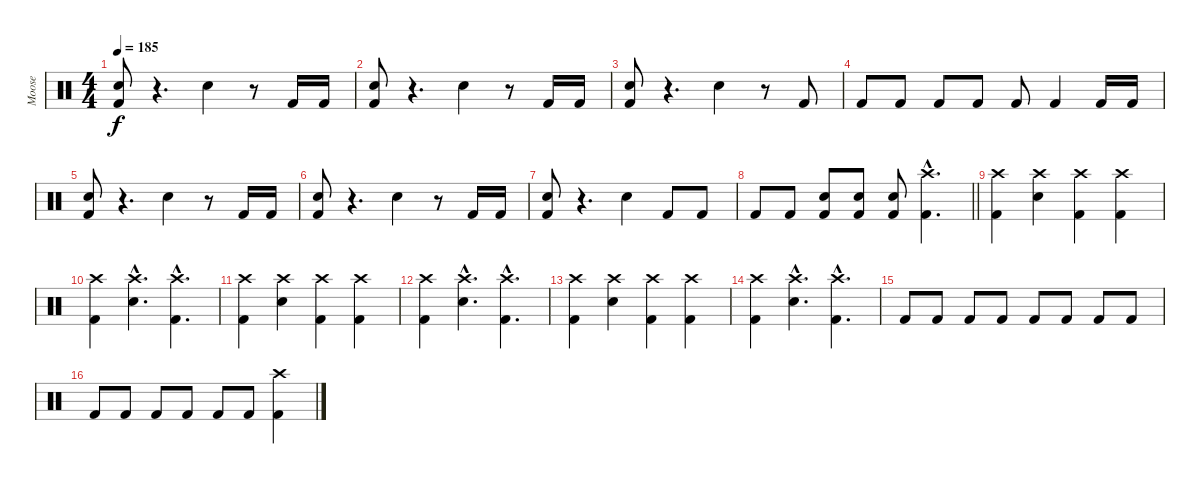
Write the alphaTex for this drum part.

\track ("Moose" "Moose") {instrument percussion}
\staff {score}
\articulation defaults
\ts (4 4)
\tempo 185
\clef neutral
\ks c
("Snare (hit) 2" "Kick (hit) 2").8{dy f} r.4{d} "Snare (hit) 2".4 r.8 "Kick (hit) 2".16 "Kick (hit) 2".16 |
("Snare (hit) 2" "Kick (hit) 2").8 r.4{d} "Snare (hit) 2".4 r.8 "Kick (hit) 2".16 "Kick (hit) 2".16 |
("Snare (hit) 2" "Kick (hit) 2").8 r.4{d} "Snare (hit) 2".4 r.8 "Kick (hit) 2".8 |
"Kick (hit) 2".8 "Kick (hit) 2".8 "Kick (hit) 2".8 "Kick (hit) 2".8 "Kick (hit) 2".8 "Kick (hit) 2".4 "Kick (hit) 2".16 "Kick (hit) 2".16 |
("Snare (hit) 2" "Kick (hit) 2").8 r.4{d} "Snare (hit) 2".4 r.8 "Kick (hit) 2".16 "Kick (hit) 2".16 |
("Snare (hit) 2" "Kick (hit) 2").8 r.4{d} "Snare (hit) 2".4 r.8 "Kick (hit) 2".16 "Kick (hit) 2".16 |
("Snare (hit) 2" "Kick (hit) 2").8 r.4{d} "Snare (hit) 2".4 "Kick (hit) 2".8 "Kick (hit) 2".8 |
\barLineRight lightlight "Kick (hit) 2".8 "Kick (hit) 2".8
("Snare (hit) 2" "Kick (hit) 2").8 ("Snare (hit) 2" "Kick (hit) 2").8 ("Snare (hit) 2" "Kick (hit) 2").8 ("Crash high (hit)"{hac} "Kick (hit) 2"{hac}).4{d} |
("Crash high (hit)" "Kick (hit) 2").4 ("Crash high (hit)" "Snare (hit) 2").4 ("Crash high (hit)" "Kick (hit) 2").4 ("Crash high (hit)" "Kick (hit) 2").4 |
("Crash high (hit)" "Kick (hit) 2").4 ("Crash high (hit)"{hac} "Snare (hit) 2"{hac}).4{d} ("Crash high (hit)"{hac} "Kick (hit) 2"{hac}).4{d} |
("Crash high (hit)" "Kick (hit) 2").4 ("Crash high (hit)" "Snare (hit) 2").4 ("Crash high (hit)" "Kick (hit) 2").4 ("Crash high (hit)" "Kick (hit) 2").4 |
("Crash high (hit)" "Kick (hit) 2").4 ("Crash high (hit)"{hac} "Snare (hit) 2"{hac}).4{d} ("Crash high (hit)"{hac} "Kick (hit) 2"{hac}).4{d} |
("Crash high (hit)" "Kick (hit) 2").4 ("Crash high (hit)" "Snare (hit) 2").4 ("Crash high (hit)" "Kick (hit) 2").4 ("Crash high (hit)" "Kick (hit) 2").4 |
("Crash high (hit)" "Kick (hit) 2").4 ("Crash high (hit)"{hac} "Snare (hit) 2"{hac}).4{d} ("Crash high (hit)"{hac} "Kick (hit) 2"{hac}).4{d} |
"Kick (hit) 2".8 "Kick (hit) 2".8 "Kick (hit) 2".8 "Kick (hit) 2".8 "Kick (hit) 2".8 "Kick (hit) 2".8 "Kick (hit) 2".8 "Kick (hit) 2".8 |
"Kick (hit) 2".8 "Kick (hit) 2".8 "Kick (hit) 2".8 "Kick (hit) 2".8 "Kick (hit) 2".8 "Kick (hit) 2".8 ("Crash high (hit)" "Kick (hit) 2").4
